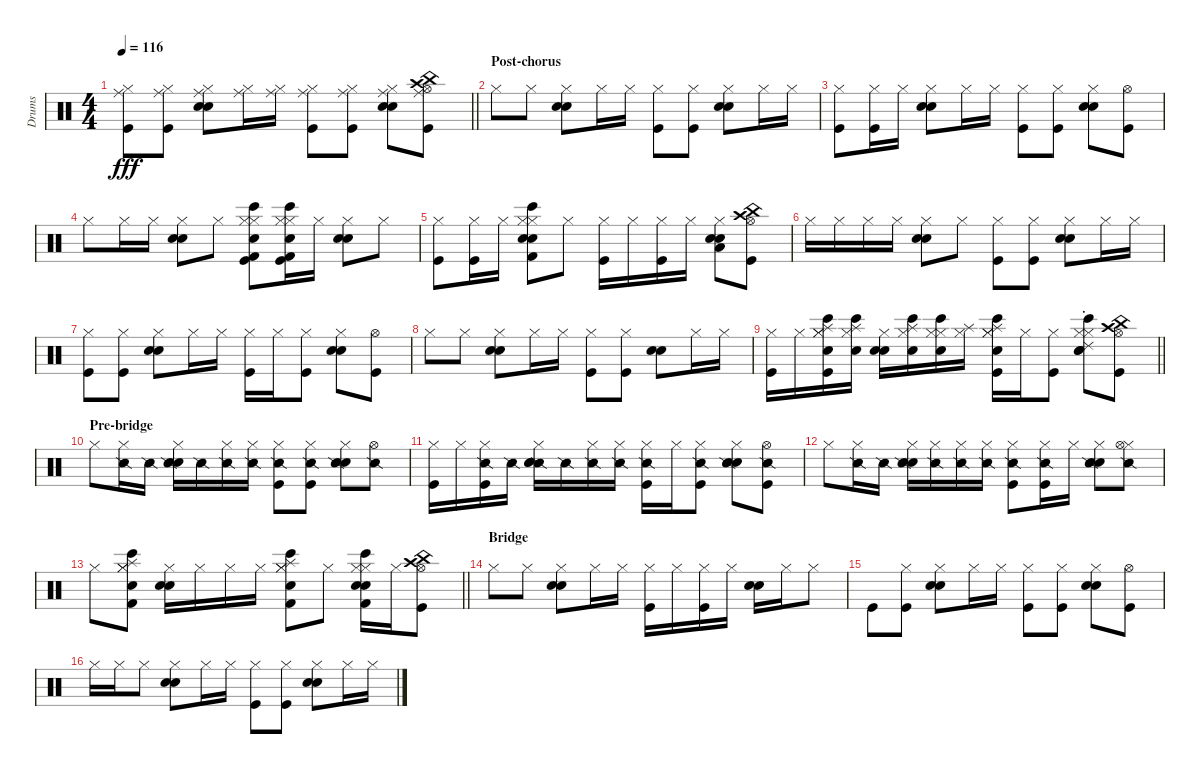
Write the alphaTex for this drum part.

\track ("Drums" "Drums") {instrument percussion}
\staff {score}
\articulation defaults
\ts (4 4)
\tempo 116
\clef neutral
\barLineRight lightlight
\ks c
("Ride (middle)" "Hi-Hat (closed)" "Kick (hit)").8{dy fff} ("Ride (middle)" "Hi-Hat (closed)" "Kick (hit)").8 ("Ride (middle)" "Hi-Hat (closed)" "Snare (hit) 2" "Electric Snare (hit)").8 ("Ride (middle)" "Hi-Hat (closed)").16 ("Ride (middle)" "Hi-Hat (closed)").16 ("Ride (middle)" "Hi-Hat (closed)" "Kick (hit)").8 ("Ride (middle)" "Hi-Hat (closed)" "Kick (hit)").8 ("Ride (middle)" "Hi-Hat (closed)" "Snare (hit) 2" "Electric Snare (hit)").8 ("Ride (middle)" "Hi-Hat (open)" "Crash high (hit)" "China (hit)" "Kick (hit)").8 |
\section ("" "Post-chorus")
"Hi-Hat (closed)".8 "Hi-Hat (closed)".8 ("Snare (hit) 2" "Electric Snare (hit)" "Hi-Hat (closed)").8 "Hi-Hat (closed)".16 "Hi-Hat (closed)".16 ("Hi-Hat (closed)" "Kick (hit)").8 ("Hi-Hat (closed)" "Kick (hit)").8 ("Snare (hit) 2" "Electric Snare (hit)" "Hi-Hat (closed)").8 "Hi-Hat (closed)".16 "Hi-Hat (closed)".16 |
("Hi-Hat (closed)" "Kick (hit)").8 ("Hi-Hat (closed)" "Kick (hit)").16 "Hi-Hat (closed)".16 ("Hi-Hat (closed)" "Snare (hit) 2" "Electric Snare (hit)").8 "Hi-Hat (closed)".16 "Hi-Hat (closed)".16 ("Hi-Hat (closed)" "Kick (hit)").8 ("Kick (hit)" "Hi-Hat (closed)").8 ("Snare (hit) 2" "Electric Snare (hit)" "Hi-Hat (closed)").8 ("Kick (hit)" "Hi-Hat (open)").8 |
"Hi-Hat (closed)".8 "Hi-Hat (closed)".16 "Hi-Hat (closed)".16 ("Snare (hit) 2" "Electric Snare (hit)" "Hi-Hat (closed)").8 "Hi-Hat (closed)".8 ("Hi-Hat (closed)" "Bongo High (hit)" "Snare (hit) 2" "Kick (hit) 2" "Hi-Hat (closed)" "Kick (hit)").8 ("Hi-Hat (closed)" "Hi-Hat (closed)" "Kick (hit)" "Bongo High (hit)" "Snare (hit) 2" "Kick (hit) 2").16 "Hi-Hat (closed)".16 ("Hi-Hat (closed)" "Snare (hit) 2" "Electric Snare (hit)").8 "Hi-Hat (closed)".8 |
("Hi-Hat (closed)" "Kick (hit)").8 ("Hi-Hat (closed)" "Kick (hit)").16 "Hi-Hat (closed)".16 ("Hi-Hat (closed)" "Bongo High (hit)" "Snare (hit) 2" "Kick (hit) 2" "Hi-Hat (closed)" "Snare (hit) 2").8 "Hi-Hat (closed)".8 ("Hi-Hat (closed)" "Kick (hit)").16 "Hi-Hat (closed)".16 ("Hi-Hat (closed)" "Kick (hit)").16 "Hi-Hat (closed)".16 ("Hi-Hat (closed)" "Snare (hit) 2" "Electric Snare (hit)" "Low Floor Tom (hit)").8 ("Hi-Hat (open)" "Crash high (hit)" "China (hit)" "Kick (hit)").8 |
"Hi-Hat (closed)".16 "Hi-Hat (closed)".16 "Hi-Hat (closed)".16 "Hi-Hat (closed)".16 ("Snare (hit) 2" "Electric Snare (hit)" "Hi-Hat (closed)").8 "Hi-Hat (closed)".8 ("Kick (hit)" "Hi-Hat (closed)").8 ("Hi-Hat (closed)" "Kick (hit)").8 ("Snare (hit) 2" "Electric Snare (hit)" "Hi-Hat (closed)").8 "Hi-Hat (closed)".16 "Hi-Hat (closed)".16 |
("Hi-Hat (closed)" "Kick (hit)").8 ("Hi-Hat (closed)" "Kick (hit)").8 ("Hi-Hat (closed)" "Snare (hit) 2" "Electric Snare (hit)").8 "Hi-Hat (closed)".16 "Hi-Hat (closed)".16 ("Hi-Hat (closed)" "Kick (hit)").16 "Hi-Hat (closed)".16 ("Kick (hit)" "Hi-Hat (closed)").8 ("Snare (hit) 2" "Electric Snare (hit)" "Hi-Hat (closed)").8 ("Kick (hit)" "Hi-Hat (open)").8 |
"Hi-Hat (closed)".8 "Hi-Hat (closed)".8 ("Snare (hit) 2" "Electric Snare (hit)" "Hi-Hat (closed)").8 "Hi-Hat (closed)".16 "Hi-Hat (closed)".16 ("Hi-Hat (closed)" "Kick (hit)").8 ("Hi-Hat (closed)" "Kick (hit)").8 ("Snare (hit) 2" "Electric Snare (hit)").8 "Hi-Hat (closed)".16 "Hi-Hat (closed)".16 |
\barLineRight lightlight
("Hi-Hat (closed)" "Kick (hit)").16 "Hi-Hat (closed)".16 ("Hi-Hat (closed)" "Snare (hit) 2" "Bongo High (hit)" "Splash (hit)" "Hi-Hat (closed)" "Kick (hit)").16 ("Snare (hit) 2" "Hi-Hat (closed)" "Bongo High (hit)" "Splash (hit)").16 ("Snare (hit) 2" "Electric Snare (hit)" "Hi-Hat (closed)").16 ("Hi-Hat (closed)" "Bongo High (hit)" "Snare (hit) 2" "Splash (hit)").16 ("Hi-Hat (closed)" "Snare (hit) 2" "Bongo High (hit)" "Hi-Hat (closed)").16 ("Hi-Hat (closed)" "Splash (hit)").16 ("Hi-Hat (closed)" "Bongo High (hit)" "Snare (hit) 2" "Hi-Hat (closed)" "Kick (hit)" "Splash (hit)").16 "Hi-Hat (closed)".16 ("Hi-Hat (closed)" "Kick (hit)").8 ("Snare (hit) 2" "Electric Snare (hit)" "Hi-Hat (closed)" "Bongo High (hit)" "Ride (choke) 2" "Hi-Hat (closed)").8 ("Hi-Hat (open)" "Crash high (hit)" "China (hit)" "Kick (hit)").8 |
\section ("" "Pre-bridge")
"Hi-Hat (closed)".8 ("Hi-Hat (closed)" "Snare (side stick) 2").16 "Snare (side stick) 2".16 ("Snare (hit) 2" "Electric Snare (hit)" "Hi-Hat (closed)" "Snare (side stick) 2").16 "Snare (side stick) 2".16 ("Snare (side stick) 2" "Hi-Hat (closed)").16 ("Snare (side stick) 2" "Hi-Hat (closed)").16 ("Snare (side stick) 2" "Hi-Hat (closed)" "Kick (hit)").8 ("Snare (side stick) 2" "Hi-Hat (closed)" "Kick (hit)").8 ("Snare (hit) 2" "Electric Snare (hit)" "Hi-Hat (closed)" "Snare (side stick) 2").8 ("Snare (side stick) 2" "Hi-Hat (open)").8 |
("Hi-Hat (closed)" "Kick (hit)").16 "Hi-Hat (closed)".16 ("Hi-Hat (closed)" "Snare (side stick) 2" "Kick (hit)").16 "Snare (side stick) 2".16 ("Hi-Hat (closed)" "Snare (side stick) 2" "Snare (hit) 2" "Electric Snare (hit)").16 "Snare (side stick) 2".16 ("Snare (side stick) 2" "Hi-Hat (closed)").16 ("Snare (side stick) 2" "Hi-Hat (closed)").16 ("Snare (side stick) 2" "Hi-Hat (closed)" "Kick (hit)").16 "Hi-Hat (closed)".16 ("Hi-Hat (closed)" "Snare (side stick) 2" "Kick (hit)").8 ("Snare (hit) 2" "Electric Snare (hit)" "Snare (side stick) 2" "Hi-Hat (closed)").8 ("Hi-Hat (open)" "Kick (hit)" "Snare (side stick) 2").8 |
"Hi-Hat (closed)".8 ("Snare (side stick) 2" "Hi-Hat (closed)").16 "Snare (side stick) 2".16 ("Snare (hit) 2" "Electric Snare (hit)" "Snare (side stick) 2" "Hi-Hat (closed)").16 ("Snare (side stick) 2" "Hi-Hat (closed)").16 ("Snare (side stick) 2" "Hi-Hat (closed)").16 ("Hi-Hat (closed)" "Snare (side stick) 2").16 ("Snare (side stick) 2" "Hi-Hat (closed)" "Kick (hit)").8 ("Hi-Hat (closed)" "Kick (hit)" "Snare (side stick) 2").16 "Hi-Hat (closed)".16 ("Hi-Hat (closed)" "Snare (hit) 2" "Electric Snare (hit)" "Snare (side stick) 2").8 ("Snare (side stick) 2" "Hi-Hat (closed)" "Hi-Hat (open)").8 |
\barLineRight lightlight "Hi-Hat (closed)".8
("Bongo High (hit)" "Hi-Hat (closed)" "Snare (hit) 2" "Kick (hit) 2" "Hi-Hat (closed)" "Splash (hit)").8 ("Hi-Hat (closed)" "Snare (hit) 2" "Electric Snare (hit)").16 "Hi-Hat (closed)".16 "Hi-Hat (closed)".16 "Hi-Hat (closed)".16 ("Hi-Hat (closed)" "Bongo High (hit)" "Snare (hit) 2" "Kick (hit) 2" "Hi-Hat (closed)" "Splash (hit)").8 "Hi-Hat (closed)".8 ("Hi-Hat (closed)" "Electric Snare (hit)" "Bongo High (hit)" "Snare (hit) 2" "Kick (hit) 2" "Hi-Hat (closed)").16 "Hi-Hat (closed)".16 ("Crash high (hit)" "China (hit)" "Hi-Hat (open)" "Kick (hit)").8 |
\section ("" "Bridge")
"Hi-Hat (closed)".8 "Hi-Hat (closed)".8 ("Snare (hit) 2" "Electric Snare (hit)" "Hi-Hat (closed)").8 "Hi-Hat (closed)".16 "Hi-Hat (closed)".16 ("Hi-Hat (closed)" "Kick (hit)").16 "Hi-Hat (closed)".16 ("Kick (hit)" "Hi-Hat (closed)").16 "Hi-Hat (closed)".16 ("Snare (hit) 2" "Electric Snare (hit)").16 "Hi-Hat (closed)".16 "Hi-Hat (closed)".8 |
"Kick (hit)".8 ("Hi-Hat (closed)" "Kick (hit)").8 ("Hi-Hat (closed)" "Snare (hit) 2" "Electric Snare (hit)").8 "Hi-Hat (closed)".16 "Hi-Hat (closed)".16 ("Hi-Hat (closed)" "Kick (hit)").8 ("Hi-Hat (closed)" "Kick (hit)").8 ("Snare (hit) 2" "Electric Snare (hit)" "Hi-Hat (closed)").8 ("Hi-Hat (open)" "Kick (hit)").8 |
"Hi-Hat (closed)".16 "Hi-Hat (closed)".16 "Hi-Hat (closed)".8 ("Snare (hit) 2" "Electric Snare (hit)" "Hi-Hat (closed)").8 "Hi-Hat (closed)".16 "Hi-Hat (closed)".16 ("Hi-Hat (closed)" "Kick (hit)").8 ("Hi-Hat (closed)" "Kick (hit)").8 ("Snare (hit) 2" "Electric Snare (hit)" "Hi-Hat (closed)").8 "Hi-Hat (closed)".16 "Hi-Hat (closed)".16
